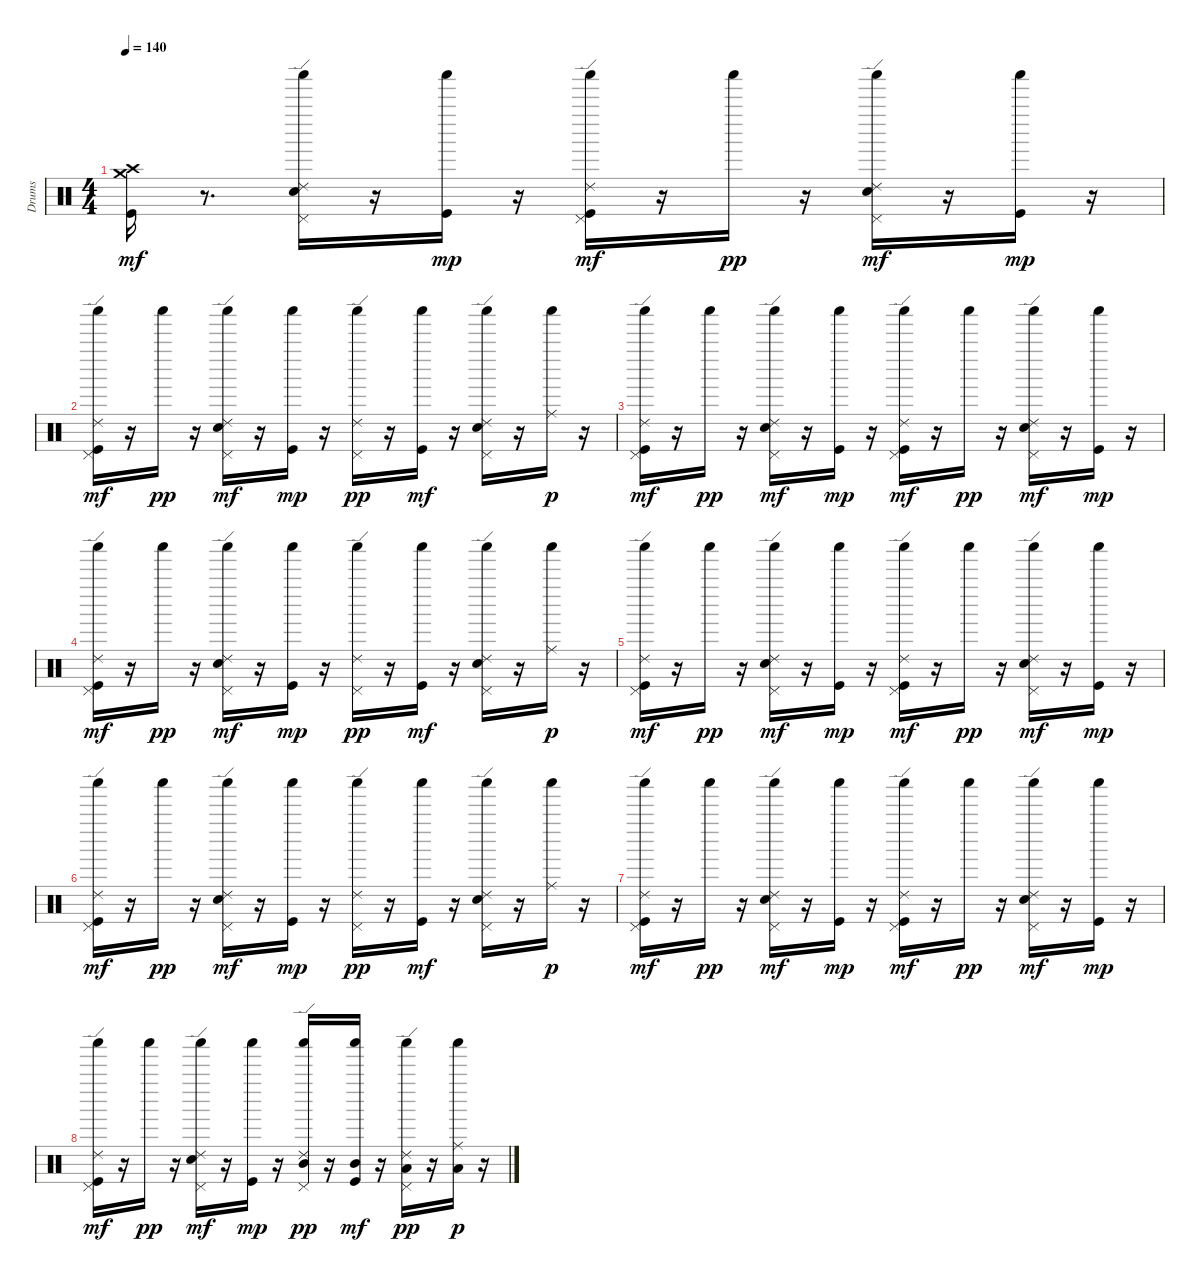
\track ("Drums" "Drums") {instrument percussion}
\staff {score}
\articulation defaults
\ts (4 4)
\tempo 140
\clef neutral
\ks c
("Crash medium (hit)" "Crash high (hit)" "Kick (hit)").16{dy mf} r.8{d} ("Pedal Hi-Hat (hit)" "Ride (edge) 2" "Shaker (hit)" "Snare (hit) 2").16 r.16 ("Shaker (hit)" "Kick (hit)").16{dy mp} r.16 ("Pedal Hi-Hat (hit)" "Ride (edge) 2" "Shaker (hit)" "Kick (hit)").16{dy mf} r.16 "Shaker (hit)".16{dy pp} r.16 ("Pedal Hi-Hat (hit)" "Ride (edge) 2" "Shaker (hit)" "Snare (hit) 2").16{dy mf} r.16 ("Shaker (hit)" "Kick (hit)").16{dy mp} r.16 |
("Pedal Hi-Hat (hit)" "Ride (edge) 2" "Shaker (hit)" "Kick (hit)").16{dy mf} r.16 "Shaker (hit)".16{dy pp} r.16 ("Pedal Hi-Hat (hit)" "Ride (edge) 2" "Shaker (hit)" "Snare (hit) 2").16{dy mf} r.16 ("Shaker (hit)" "Kick (hit)").16{dy mp} r.16 ("Pedal Hi-Hat (hit)" "Ride (edge) 2" "Shaker (hit)").16{dy pp} r.16 ("Shaker (hit)" "Kick (hit)").16{dy mf} r.16 ("Pedal Hi-Hat (hit)" "Ride (edge) 2" "Shaker (hit)" "Snare (hit) 2").16 r.16 ("Shaker (hit)" "Ride (middle)").16{dy p} r.16 |
("Pedal Hi-Hat (hit)" "Ride (edge) 2" "Shaker (hit)" "Kick (hit)").16{dy mf} r.16 "Shaker (hit)".16{dy pp} r.16 ("Pedal Hi-Hat (hit)" "Ride (edge) 2" "Shaker (hit)" "Snare (hit) 2").16{dy mf} r.16 ("Shaker (hit)" "Kick (hit)").16{dy mp} r.16 ("Pedal Hi-Hat (hit)" "Ride (edge) 2" "Shaker (hit)" "Kick (hit)").16{dy mf} r.16 "Shaker (hit)".16{dy pp} r.16 ("Pedal Hi-Hat (hit)" "Ride (edge) 2" "Shaker (hit)" "Snare (hit) 2").16{dy mf} r.16 ("Shaker (hit)" "Kick (hit)").16{dy mp} r.16 |
("Pedal Hi-Hat (hit)" "Ride (edge) 2" "Shaker (hit)" "Kick (hit)").16{dy mf} r.16 "Shaker (hit)".16{dy pp} r.16 ("Pedal Hi-Hat (hit)" "Ride (edge) 2" "Shaker (hit)" "Snare (hit) 2").16{dy mf} r.16 ("Shaker (hit)" "Kick (hit)").16{dy mp} r.16 ("Pedal Hi-Hat (hit)" "Ride (edge) 2" "Shaker (hit)").16{dy pp} r.16 ("Shaker (hit)" "Kick (hit)").16{dy mf} r.16 ("Pedal Hi-Hat (hit)" "Ride (edge) 2" "Shaker (hit)" "Snare (hit) 2").16 r.16 ("Shaker (hit)" "Ride (middle)").16{dy p} r.16 |
("Pedal Hi-Hat (hit)" "Ride (edge) 2" "Shaker (hit)" "Kick (hit)").16{dy mf} r.16 "Shaker (hit)".16{dy pp} r.16 ("Pedal Hi-Hat (hit)" "Ride (edge) 2" "Shaker (hit)" "Snare (hit) 2").16{dy mf} r.16 ("Shaker (hit)" "Kick (hit)").16{dy mp} r.16 ("Pedal Hi-Hat (hit)" "Ride (edge) 2" "Shaker (hit)" "Kick (hit)").16{dy mf} r.16 "Shaker (hit)".16{dy pp} r.16 ("Pedal Hi-Hat (hit)" "Ride (edge) 2" "Shaker (hit)" "Snare (hit) 2").16{dy mf} r.16 ("Shaker (hit)" "Kick (hit)").16{dy mp} r.16 |
("Pedal Hi-Hat (hit)" "Ride (edge) 2" "Shaker (hit)" "Kick (hit)").16{dy mf} r.16 "Shaker (hit)".16{dy pp} r.16 ("Pedal Hi-Hat (hit)" "Ride (edge) 2" "Shaker (hit)" "Snare (hit) 2").16{dy mf} r.16 ("Shaker (hit)" "Kick (hit)").16{dy mp} r.16 ("Pedal Hi-Hat (hit)" "Ride (edge) 2" "Shaker (hit)").16{dy pp} r.16 ("Shaker (hit)" "Kick (hit)").16{dy mf} r.16 ("Pedal Hi-Hat (hit)" "Ride (edge) 2" "Shaker (hit)" "Snare (hit) 2").16 r.16 ("Shaker (hit)" "Ride (middle)").16{dy p} r.16 |
("Pedal Hi-Hat (hit)" "Ride (edge) 2" "Shaker (hit)" "Kick (hit)").16{dy mf} r.16 "Shaker (hit)".16{dy pp} r.16 ("Pedal Hi-Hat (hit)" "Ride (edge) 2" "Shaker (hit)" "Snare (hit) 2").16{dy mf} r.16 ("Shaker (hit)" "Kick (hit)").16{dy mp} r.16 ("Pedal Hi-Hat (hit)" "Ride (edge) 2" "Shaker (hit)" "Kick (hit)").16{dy mf} r.16 "Shaker (hit)".16{dy pp} r.16 ("Pedal Hi-Hat (hit)" "Ride (edge) 2" "Shaker (hit)" "Snare (hit) 2").16{dy mf} r.16 ("Shaker (hit)" "Kick (hit)").16{dy mp} r.16 |
("Pedal Hi-Hat (hit)" "Ride (edge) 2" "Shaker (hit)" "Kick (hit)").16{dy mf} r.16 "Shaker (hit)".16{dy pp} r.16 ("Pedal Hi-Hat (hit)" "Ride (edge) 2" "Shaker (hit)" "Snare (hit) 2").16{dy mf} r.16 ("Shaker (hit)" "Kick (hit)").16{dy mp} r.16 ("Pedal Hi-Hat (hit)" "Mid Tom (hit)" "Ride (edge) 2" "Shaker (hit)").16{dy pp} r.16 ("Mid Tom (hit)" "Shaker (hit)" "Kick (hit)").16{dy mf} r.16 ("Pedal Hi-Hat (hit)" "Low Tom (hit)" "Ride (edge) 2" "Shaker (hit)").16{dy pp} r.16 ("Low Floor Tom (hit)" "Shaker (hit)" "Ride (middle)").16{dy p} r.16
